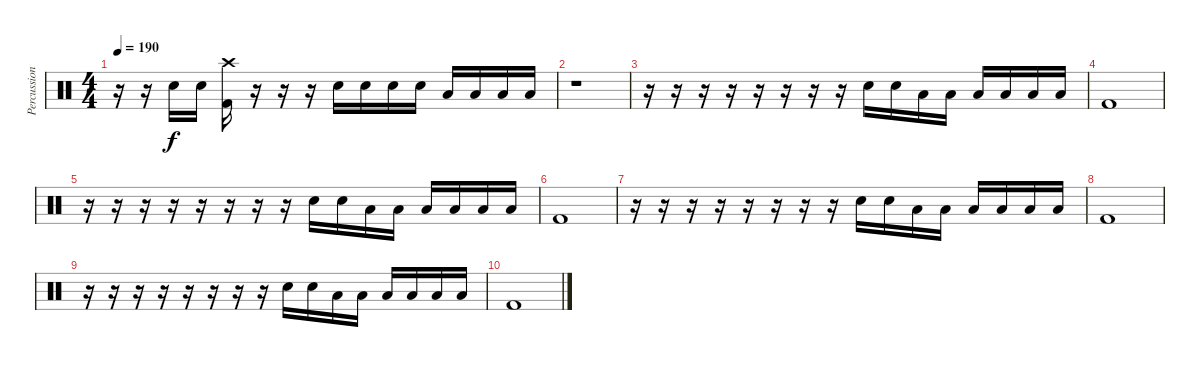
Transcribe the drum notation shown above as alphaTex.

\track ("Percussion" "Percussion") {instrument percussion}
\staff {score}
\articulation defaults
\ts (4 4)
\tempo 190
\clef neutral
\ks c
r.16{dy f} r.16 "Electric Snare (hit)".16 "Electric Snare (hit)".16 ("Crash high (hit)" "Kick (hit) 2").16 r.16 r.16 r.16 "Electric Snare (hit)".16 "Electric Snare (hit)".16 "Electric Snare (hit)".16 "Electric Snare (hit)".16 "Low Tom (hit)".16 "Low Tom (hit)".16 "Low Tom (hit)".16 "Low Tom (hit)".16 |
r.1 |
r.16 r.16 r.16 r.16 r.16 r.16 r.16 r.16 "Electric Snare (hit)".16 "Electric Snare (hit)".16 "Low Tom (hit)".16 "Low Tom (hit)".16 "Low Tom (hit)".16 "Low Tom (hit)".16 "Low Tom (hit)".16 "Low Tom (hit)".16 |
"Kick (hit) 2".1 |
r.16 r.16 r.16 r.16 r.16 r.16 r.16 r.16 "Electric Snare (hit)".16 "Electric Snare (hit)".16 "Low Tom (hit)".16 "Low Tom (hit)".16 "Low Tom (hit)".16 "Low Tom (hit)".16 "Low Tom (hit)".16 "Low Tom (hit)".16 |
"Kick (hit) 2".1 |
r.16 r.16 r.16 r.16 r.16 r.16 r.16 r.16 "Electric Snare (hit)".16 "Electric Snare (hit)".16 "Low Tom (hit)".16 "Low Tom (hit)".16 "Low Tom (hit)".16 "Low Tom (hit)".16 "Low Tom (hit)".16 "Low Tom (hit)".16 |
"Kick (hit) 2".1 |
r.16 r.16 r.16 r.16 r.16 r.16 r.16 r.16 "Electric Snare (hit)".16 "Electric Snare (hit)".16 "Low Tom (hit)".16 "Low Tom (hit)".16 "Low Tom (hit)".16 "Low Tom (hit)".16 "Low Tom (hit)".16 "Low Tom (hit)".16 |
"Kick (hit) 2".1
